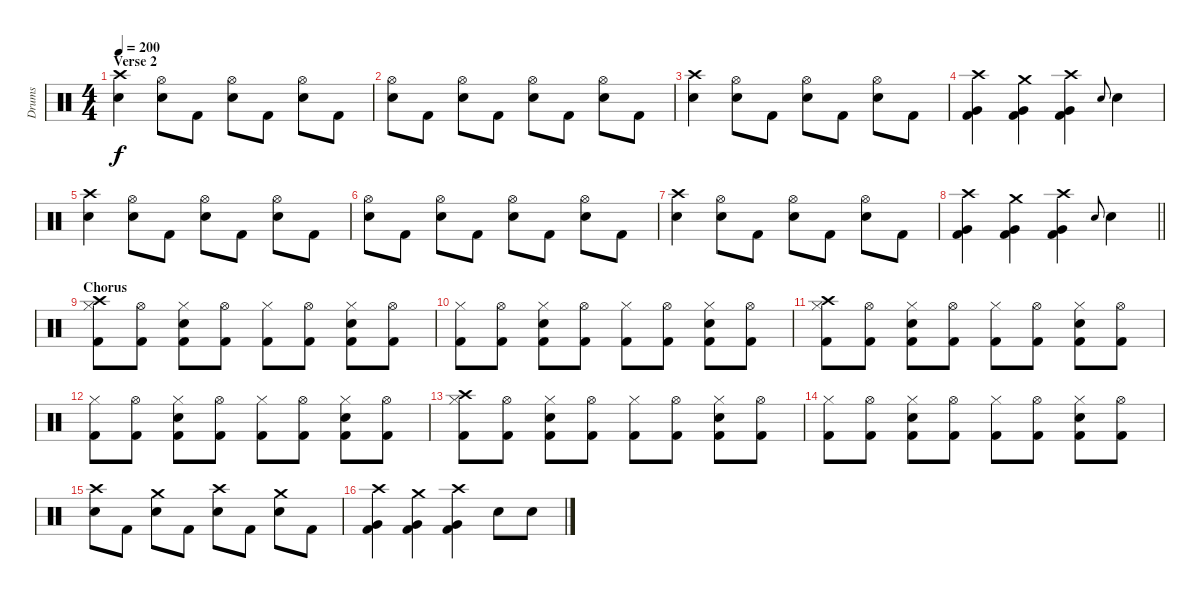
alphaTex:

\track ("Drums" "Drums") {instrument percussion}
\staff {score}
\articulation defaults
\ts (4 4)
\section ("" "Verse 2")
\tempo 200
\clef neutral
\ks c
("Crash high (hit)" "Snare (hit) 2").4{dy f} ("Hi-Hat (open)" "Snare (hit) 2").8 "Kick (hit) 2".8 ("Hi-Hat (open)" "Snare (hit) 2").8 "Kick (hit) 2".8 ("Hi-Hat (open)" "Snare (hit) 2").8 "Kick (hit) 2".8 |
("Hi-Hat (open)" "Snare (hit) 2").8 "Kick (hit) 2".8 ("Hi-Hat (open)" "Snare (hit) 2").8 "Kick (hit) 2".8 ("Hi-Hat (open)" "Snare (hit) 2").8 "Kick (hit) 2".8 ("Hi-Hat (open)" "Snare (hit) 2").8 "Kick (hit) 2".8 |
("Crash high (hit)" "Snare (hit) 2").4 ("Hi-Hat (open)" "Snare (hit) 2").8 "Kick (hit) 2".8 ("Hi-Hat (open)" "Snare (hit) 2").8 "Kick (hit) 2".8 ("Hi-Hat (open)" "Snare (hit) 2").8 "Kick (hit) 2".8 |
("Crash high (hit)" "Very Low Tom (hit)" "Kick (hit) 2").4 ("Crash medium (hit)" "Very Low Tom (hit)" "Kick (hit) 2").4 ("Crash high (hit)" "Very Low Tom (hit)" "Kick (hit) 2").4 "Snare (hit) 2".8{gr onbeat} "Snare (hit) 2".4 |
("Crash high (hit)" "Snare (hit) 2").4 ("Hi-Hat (open)" "Snare (hit) 2").8 "Kick (hit) 2".8 ("Hi-Hat (open)" "Snare (hit) 2").8 "Kick (hit) 2".8 ("Hi-Hat (open)" "Snare (hit) 2").8 "Kick (hit) 2".8 |
("Hi-Hat (open)" "Snare (hit) 2").8 "Kick (hit) 2".8 ("Hi-Hat (open)" "Snare (hit) 2").8 "Kick (hit) 2".8 ("Hi-Hat (open)" "Snare (hit) 2").8 "Kick (hit) 2".8 ("Hi-Hat (open)" "Snare (hit) 2").8 "Kick (hit) 2".8 |
("Crash high (hit)" "Snare (hit) 2").4 ("Hi-Hat (open)" "Snare (hit) 2").8 "Kick (hit) 2".8 ("Hi-Hat (open)" "Snare (hit) 2").8 "Kick (hit) 2".8 ("Hi-Hat (open)" "Snare (hit) 2").8 "Kick (hit) 2".8 |
\barLineRight lightlight
("Crash high (hit)" "Very Low Tom (hit)" "Kick (hit) 2").4 ("Crash medium (hit)" "Very Low Tom (hit)" "Kick (hit) 2").4 ("Crash high (hit)" "Very Low Tom (hit)" "Kick (hit) 2").4 "Snare (hit) 2".8{gr onbeat} "Snare (hit) 2".4 |
\section ("" "Chorus")
("Crash high (hit)" "Hi-Hat (closed)" "Kick (hit) 2").8 ("Hi-Hat (open)" "Kick (hit) 2").8 ("Hi-Hat (closed)" "Snare (hit) 2" "Kick (hit) 2").8 ("Hi-Hat (open)" "Kick (hit) 2").8 ("Hi-Hat (closed)" "Kick (hit) 2").8 ("Hi-Hat (open)" "Kick (hit) 2").8 ("Hi-Hat (closed)" "Snare (hit) 2" "Kick (hit) 2").8 ("Hi-Hat (open)" "Kick (hit) 2").8 |
("Hi-Hat (closed)" "Kick (hit) 2").8 ("Hi-Hat (open)" "Kick (hit) 2").8 ("Hi-Hat (closed)" "Snare (hit) 2" "Kick (hit) 2").8 ("Hi-Hat (open)" "Kick (hit) 2").8 ("Hi-Hat (closed)" "Kick (hit) 2").8 ("Hi-Hat (open)" "Kick (hit) 2").8 ("Hi-Hat (closed)" "Snare (hit) 2" "Kick (hit) 2").8 ("Hi-Hat (open)" "Kick (hit) 2").8 |
("Crash high (hit)" "Hi-Hat (closed)" "Kick (hit) 2").8 ("Hi-Hat (open)" "Kick (hit) 2").8 ("Hi-Hat (closed)" "Snare (hit) 2" "Kick (hit) 2").8 ("Hi-Hat (open)" "Kick (hit) 2").8 ("Hi-Hat (closed)" "Kick (hit) 2").8 ("Hi-Hat (open)" "Kick (hit) 2").8 ("Hi-Hat (closed)" "Snare (hit) 2" "Kick (hit) 2").8 ("Hi-Hat (open)" "Kick (hit) 2").8 |
("Hi-Hat (closed)" "Kick (hit) 2").8 ("Hi-Hat (open)" "Kick (hit) 2").8 ("Hi-Hat (closed)" "Snare (hit) 2" "Kick (hit) 2").8 ("Hi-Hat (open)" "Kick (hit) 2").8 ("Hi-Hat (closed)" "Kick (hit) 2").8 ("Hi-Hat (open)" "Kick (hit) 2").8 ("Hi-Hat (closed)" "Snare (hit) 2" "Kick (hit) 2").8 ("Hi-Hat (open)" "Kick (hit) 2").8 |
("Crash high (hit)" "Hi-Hat (closed)" "Kick (hit) 2").8 ("Hi-Hat (open)" "Kick (hit) 2").8 ("Hi-Hat (closed)" "Snare (hit) 2" "Kick (hit) 2").8 ("Hi-Hat (open)" "Kick (hit) 2").8 ("Hi-Hat (closed)" "Kick (hit) 2").8 ("Hi-Hat (open)" "Kick (hit) 2").8 ("Hi-Hat (closed)" "Snare (hit) 2" "Kick (hit) 2").8 ("Hi-Hat (open)" "Kick (hit) 2").8 |
("Hi-Hat (closed)" "Kick (hit) 2").8 ("Hi-Hat (open)" "Kick (hit) 2").8 ("Hi-Hat (closed)" "Snare (hit) 2" "Kick (hit) 2").8 ("Hi-Hat (open)" "Kick (hit) 2").8 ("Hi-Hat (closed)" "Kick (hit) 2").8 ("Hi-Hat (open)" "Kick (hit) 2").8 ("Hi-Hat (closed)" "Snare (hit) 2" "Kick (hit) 2").8 ("Hi-Hat (open)" "Kick (hit) 2").8 |
("Crash high (hit)" "Snare (hit) 2").8 "Kick (hit) 2".8 ("Crash medium (hit)" "Snare (hit) 2").8 "Kick (hit) 2".8 ("Crash high (hit)" "Snare (hit) 2").8 "Kick (hit) 2".8 ("Crash medium (hit)" "Snare (hit) 2").8 "Kick (hit) 2".8 |
("Crash high (hit)" "Very Low Tom (hit)" "Kick (hit) 2").4 ("Crash medium (hit)" "Very Low Tom (hit)" "Kick (hit) 2").4 ("Crash high (hit)" "Very Low Tom (hit)" "Kick (hit) 2").4 "Snare (hit) 2".8 "Snare (hit) 2".8
